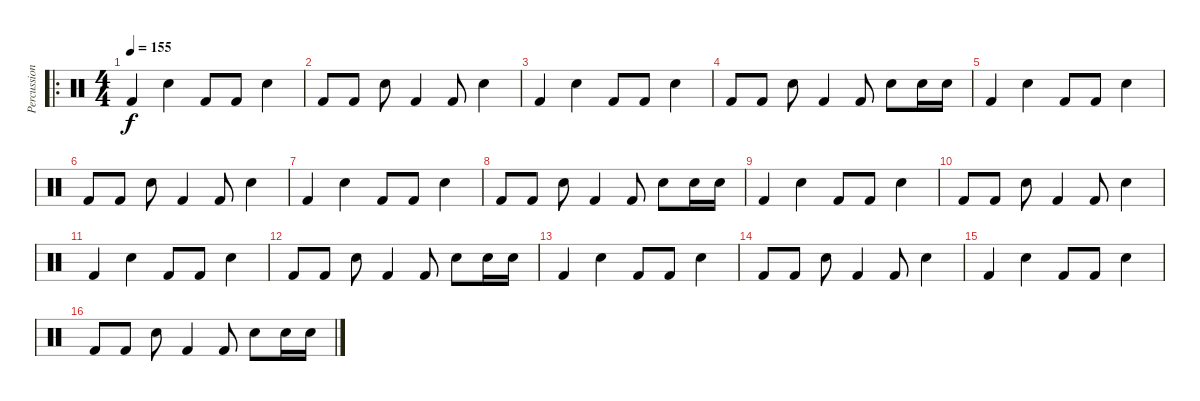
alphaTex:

\track ("Percussion" "Percussion") {instrument percussion}
\staff {score}
\articulation defaults
\ro
\ts (4 4)
\tempo 155
\clef neutral
\ks c "Kick (hit) 2".4{dy f} "Snare (hit) 2".4 "Kick (hit) 2".8 "Kick (hit) 2".8 "Snare (hit) 2".4
|
"Kick (hit) 2".8 "Kick (hit) 2".8 "Snare (hit) 2".8 "Kick (hit) 2".4 "Kick (hit) 2".8 "Snare (hit) 2".4 |
"Kick (hit) 2".4 "Snare (hit) 2".4 "Kick (hit) 2".8 "Kick (hit) 2".8 "Snare (hit) 2".4 |
"Kick (hit) 2".8 "Kick (hit) 2".8 "Snare (hit) 2".8 "Kick (hit) 2".4 "Kick (hit) 2".8 "Snare (hit) 2".8 "Snare (hit) 2".16 "Snare (hit) 2".16 |
"Kick (hit) 2".4 "Snare (hit) 2".4 "Kick (hit) 2".8 "Kick (hit) 2".8 "Snare (hit) 2".4 |
"Kick (hit) 2".8 "Kick (hit) 2".8 "Snare (hit) 2".8 "Kick (hit) 2".4 "Kick (hit) 2".8 "Snare (hit) 2".4 |
"Kick (hit) 2".4 "Snare (hit) 2".4 "Kick (hit) 2".8 "Kick (hit) 2".8 "Snare (hit) 2".4 |
"Kick (hit) 2".8 "Kick (hit) 2".8 "Snare (hit) 2".8 "Kick (hit) 2".4 "Kick (hit) 2".8 "Snare (hit) 2".8 "Snare (hit) 2".16 "Snare (hit) 2".16 |
"Kick (hit) 2".4 "Snare (hit) 2".4 "Kick (hit) 2".8 "Kick (hit) 2".8 "Snare (hit) 2".4 |
"Kick (hit) 2".8 "Kick (hit) 2".8 "Snare (hit) 2".8 "Kick (hit) 2".4 "Kick (hit) 2".8 "Snare (hit) 2".4 |
"Kick (hit) 2".4 "Snare (hit) 2".4 "Kick (hit) 2".8 "Kick (hit) 2".8 "Snare (hit) 2".4 |
"Kick (hit) 2".8 "Kick (hit) 2".8 "Snare (hit) 2".8 "Kick (hit) 2".4 "Kick (hit) 2".8 "Snare (hit) 2".8 "Snare (hit) 2".16 "Snare (hit) 2".16 |
"Kick (hit) 2".4 "Snare (hit) 2".4 "Kick (hit) 2".8 "Kick (hit) 2".8 "Snare (hit) 2".4 |
"Kick (hit) 2".8 "Kick (hit) 2".8 "Snare (hit) 2".8 "Kick (hit) 2".4 "Kick (hit) 2".8 "Snare (hit) 2".4 |
"Kick (hit) 2".4 "Snare (hit) 2".4 "Kick (hit) 2".8 "Kick (hit) 2".8 "Snare (hit) 2".4 |
"Kick (hit) 2".8 "Kick (hit) 2".8 "Snare (hit) 2".8 "Kick (hit) 2".4 "Kick (hit) 2".8 "Snare (hit) 2".8 "Snare (hit) 2".16 "Snare (hit) 2".16
